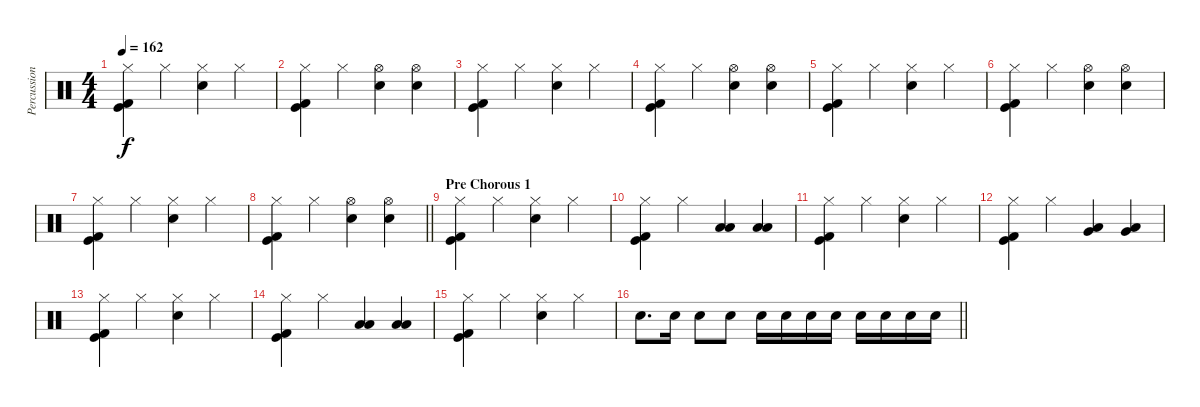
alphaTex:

\track ("Percussion" "Percussion") {instrument percussion}
\staff {score}
\articulation defaults
\ts (4 4)
\section ("" "")
\tempo 162
\clef neutral
\ks c
("Hi-Hat (closed)" "Kick (hit)" "Kick (hit) 2").4{dy f} "Hi-Hat (closed)".4 ("Hi-Hat (closed)" "Electric Snare (hit)").4 "Hi-Hat (closed)".4 |
("Hi-Hat (closed)" "Kick (hit)" "Kick (hit) 2").4 "Hi-Hat (closed)".4 ("Hi-Hat (open)" "Electric Snare (hit)").4 ("Hi-Hat (open)" "Electric Snare (hit)").4 |
("Hi-Hat (closed)" "Kick (hit)" "Kick (hit) 2").4 "Hi-Hat (closed)".4 ("Hi-Hat (closed)" "Electric Snare (hit)").4 "Hi-Hat (closed)".4 |
("Hi-Hat (closed)" "Kick (hit)" "Kick (hit) 2").4 "Hi-Hat (closed)".4 ("Hi-Hat (open)" "Electric Snare (hit)").4 ("Hi-Hat (open)" "Electric Snare (hit)").4 |
("Hi-Hat (closed)" "Kick (hit)" "Kick (hit) 2").4 "Hi-Hat (closed)".4 ("Hi-Hat (closed)" "Electric Snare (hit)").4 "Hi-Hat (closed)".4 |
("Hi-Hat (closed)" "Kick (hit)" "Kick (hit) 2").4 "Hi-Hat (closed)".4 ("Hi-Hat (open)" "Electric Snare (hit)").4 ("Hi-Hat (open)" "Electric Snare (hit)").4 |
("Hi-Hat (closed)" "Kick (hit)" "Kick (hit) 2").4 "Hi-Hat (closed)".4 ("Hi-Hat (closed)" "Electric Snare (hit)").4 "Hi-Hat (closed)".4 |
\barLineRight lightlight
("Hi-Hat (closed)" "Kick (hit)" "Kick (hit) 2").4 "Hi-Hat (closed)".4 ("Hi-Hat (open)" "Electric Snare (hit)").4 ("Hi-Hat (open)" "Electric Snare (hit)").4 |
\section ("" "Pre Chorous 1")
("Hi-Hat (closed)" "Kick (hit)" "Kick (hit) 2").4 "Hi-Hat (closed)".4 ("Hi-Hat (closed)" "Electric Snare (hit)").4 "Hi-Hat (closed)".4 |
("Hi-Hat (closed)" "Kick (hit)" "Kick (hit) 2").4 "Hi-Hat (closed)".4 ("Low Tom (hit)" "Low Floor Tom (hit)").4 ("Low Tom (hit)" "Low Floor Tom (hit)").4 |
("Hi-Hat (closed)" "Kick (hit)" "Kick (hit) 2").4 "Hi-Hat (closed)".4 ("Hi-Hat (closed)" "Electric Snare (hit)").4 "Hi-Hat (closed)".4 |
("Hi-Hat (closed)" "Kick (hit)" "Kick (hit) 2").4 "Hi-Hat (closed)".4 ("Very Low Tom (hit)" "Low Floor Tom (hit)").4 ("Very Low Tom (hit)" "Low Floor Tom (hit)").4 |
("Hi-Hat (closed)" "Kick (hit)" "Kick (hit) 2").4 "Hi-Hat (closed)".4 ("Hi-Hat (closed)" "Electric Snare (hit)").4 "Hi-Hat (closed)".4 |
("Hi-Hat (closed)" "Kick (hit)" "Kick (hit) 2").4 "Hi-Hat (closed)".4 ("Low Tom (hit)" "Low Floor Tom (hit)").4 ("Low Tom (hit)" "Low Floor Tom (hit)").4 |
("Hi-Hat (closed)" "Kick (hit)" "Kick (hit) 2").4 "Hi-Hat (closed)".4 ("Hi-Hat (closed)" "Electric Snare (hit)").4 "Hi-Hat (closed)".4 |
\barLineRight lightlight "Electric Snare (hit)".8{d} "Electric Snare (hit)".16 "Electric Snare (hit)".8 "Electric Snare (hit)".8 "Electric Snare (hit)".16 "Electric Snare (hit)".16 "Electric Snare (hit)".16 "Electric Snare (hit)".16 "Electric Snare (hit)".16 "Electric Snare (hit)".16 "Electric Snare (hit)".16 "Electric Snare (hit)".16
